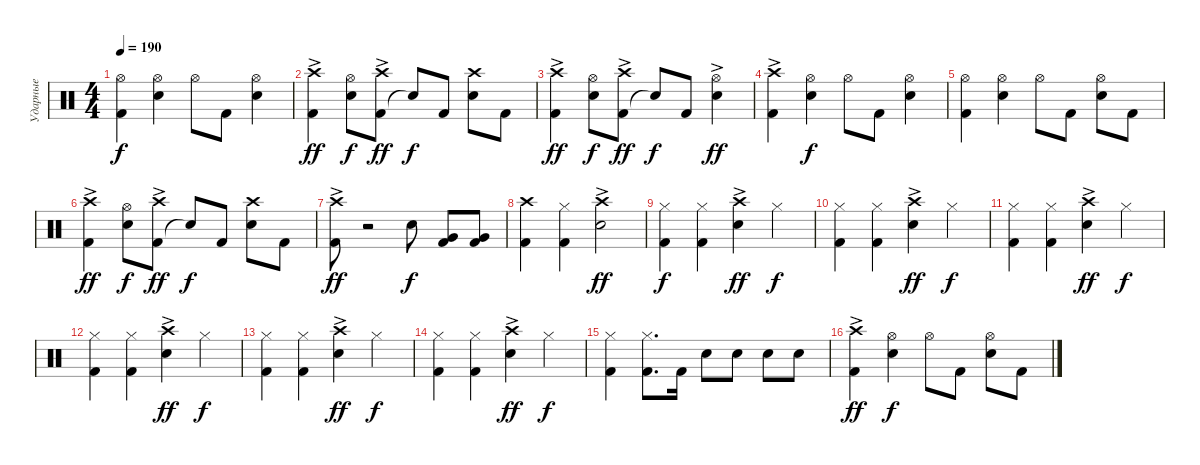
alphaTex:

\track ("Ударные" "Ударные") {instrument percussion}
\staff {score}
\articulation defaults
\ts (4 4)
\tempo 190
\clef neutral
\ks c
("Kick (hit) 2" "Hi-Hat (open)").4{dy f} ("Snare (hit) 2" "Hi-Hat (open)").4 "Hi-Hat (open)".8 "Kick (hit) 2".8 ("Snare (hit) 2" "Hi-Hat (open)").4 |
("Kick (hit) 2" "Crash high (hit)"{ac}).4{dy ff} ("Snare (hit) 2" "Hi-Hat (open)").8{dy f} ("Kick (hit) 2" "Crash high (hit)"{ac}).8{dy ff} "Snare (hit)"{t}.8{dy f} "Kick (hit) 2".8 ("Snare (hit) 2" "Crash high (hit)").8 "Kick (hit) 2".8 |
("Kick (hit) 2" "Crash high (hit)"{ac}).4{dy ff} ("Snare (hit) 2" "Hi-Hat (open)").8{dy f} ("Kick (hit) 2" "Crash high (hit)"{ac}).8{dy ff} "Snare (hit)"{t}.8{dy f} "Kick (hit) 2".8 ("Snare (hit) 2" "Hi-Hat (open)"{ac}).4{dy ff} |
("Kick (hit) 2" "Crash high (hit)"{ac}).4 ("Snare (hit) 2" "Hi-Hat (open)").4{dy f} "Hi-Hat (open)".8 "Kick (hit) 2".8 ("Snare (hit) 2" "Hi-Hat (open)").4 |
("Kick (hit) 2" "Hi-Hat (open)").4 ("Snare (hit) 2" "Hi-Hat (open)").4 "Hi-Hat (open)".8 "Kick (hit) 2".8 ("Snare (hit) 2" "Hi-Hat (open)").8 "Kick (hit) 2".8 |
("Kick (hit) 2" "Crash high (hit)"{ac}).4{dy ff} ("Snare (hit) 2" "Hi-Hat (open)").8{dy f} ("Kick (hit) 2" "Crash high (hit)"{ac}).8{dy ff} "Snare (hit)"{t}.8{dy f} "Kick (hit) 2".8 ("Snare (hit) 2" "Crash high (hit)").8 "Kick (hit) 2".8 |
("Kick (hit) 2" "Crash high (hit)"{ac}).8{dy ff} r.2 "Snare (hit) 2".8{dy f} ("Kick (hit) 2" "Very Low Tom (hit)").8 ("Kick (hit) 2" "Very Low Tom (hit)").8 |
("Kick (hit) 2" "Crash high (hit)").4 ("Kick (hit) 2" "Hi-Hat (closed)").4 ("Snare (hit) 2" "Crash high (hit)"{ac}).2{dy ff} |
("Kick (hit) 2" "Hi-Hat (closed)").4{dy f} ("Kick (hit) 2" "Hi-Hat (closed)").4 ("Snare (hit) 2" "Crash high (hit)"{ac}).4{dy ff} "Hi-Hat (closed)".4{dy f} |
("Kick (hit) 2" "Hi-Hat (closed)").4 ("Kick (hit) 2" "Hi-Hat (closed)").4 ("Snare (hit) 2" "Crash high (hit)"{ac}).4{dy ff} "Hi-Hat (closed)".4{dy f} |
("Kick (hit) 2" "Hi-Hat (closed)").4 ("Kick (hit) 2" "Hi-Hat (closed)").4 ("Snare (hit) 2" "Crash high (hit)"{ac}).4{dy ff} "Hi-Hat (closed)".4{dy f} |
("Kick (hit) 2" "Hi-Hat (closed)").4 ("Kick (hit) 2" "Hi-Hat (closed)").4 ("Snare (hit) 2" "Crash high (hit)"{ac}).4{dy ff} "Hi-Hat (closed)".4{dy f} |
("Kick (hit) 2" "Hi-Hat (closed)").4 ("Kick (hit) 2" "Hi-Hat (closed)").4 ("Snare (hit) 2" "Crash high (hit)"{ac}).4{dy ff} "Hi-Hat (closed)".4{dy f} |
("Kick (hit) 2" "Hi-Hat (closed)").4 ("Kick (hit) 2" "Hi-Hat (closed)").4 ("Snare (hit) 2" "Crash high (hit)"{ac}).4{dy ff} "Hi-Hat (closed)".4{dy f} |
("Kick (hit) 2" "Hi-Hat (closed)").4 ("Kick (hit) 2" "Hi-Hat (closed)").8{d} "Kick (hit) 2".16 "Snare (hit) 2".8 "Snare (hit) 2".8 "Snare (hit) 2".8 "Snare (hit) 2".8 |
("Kick (hit) 2" "Crash high (hit)"{ac}).4{dy ff} ("Snare (hit) 2" "Hi-Hat (open)").4{dy f} "Hi-Hat (open)".8 "Kick (hit) 2".8 ("Snare (hit) 2" "Hi-Hat (open)").8 "Kick (hit) 2".8
